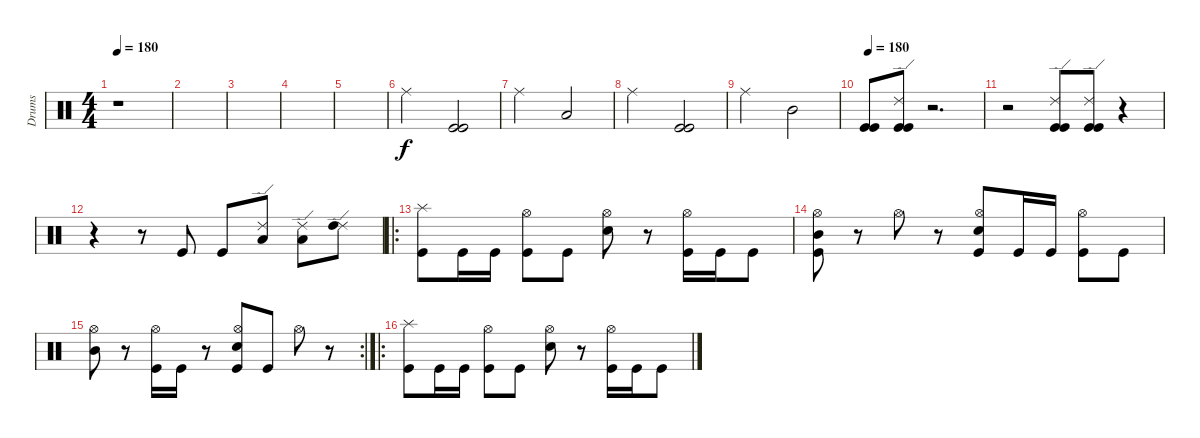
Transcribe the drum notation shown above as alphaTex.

\track ("Drums" "Drums") {instrument percussion}
\staff {score}
\articulation defaults
\ts (4 4)
\tempo 180
\tempo 120
\tempo 180
\clef neutral
\ks c
r.1{dy f} |
|
|
|
|
"Ride (middle)".2 ("Kick (hit)" "Kick (hit)").2 |
"Ride (middle)".2 "Low Tom (hit)".2 |
"Ride (middle)".2 ("Kick (hit)" "Kick (hit)").2 |
"Ride (middle)".2 "Mid Tom (hit)".2 |
\tempo 180
("Kick (hit)" "Kick (hit)").8 ("Ride (edge) 2" "Kick (hit)" "Kick (hit)").8 r.2{d} |
r.2 ("Ride (edge) 2" "Kick (hit)" "Kick (hit)").8 ("Ride (edge) 2" "Kick (hit)" "Kick (hit)").8 r.4 |
r.4 r.8 "Kick (hit)".8 "Kick (hit)".8 ("Ride (edge) 2" "Low Tom (hit)").8 ("Ride (edge) 2" "Low Tom (hit)").8 ("Ride (edge) 2" "High Tom (hit)").8 |
\ro
("Splash (hit)" "Kick (hit)").8 "Kick (hit)".16 "Kick (hit)".16 ("Hi-Hat (open)" "Kick (hit)").8 "Kick (hit)".8 ("Hi-Hat (open)" "Snare (hit) 2").8 r.8 ("Hi-Hat (open)" "Kick (hit)").16 "Kick (hit)".16 "Kick (hit)".8 |
("Hi-Hat (open)" "Mid Tom (hit)" "Kick (hit)").8 r.8 "Hi-Hat (open)".8 r.8 ("Hi-Hat (open)" "Snare (hit) 2" "Kick (hit)").8 "Kick (hit)".16 "Kick (hit)".16 ("Hi-Hat (open)" "Kick (hit)").8 "Kick (hit)".8 |
\rc 2
("Hi-Hat (open)" "Mid Tom (hit)").8 r.8 ("Hi-Hat (open)" "Kick (hit)").16 "Kick (hit)".16 r.8 ("Hi-Hat (open)" "Snare (hit) 2" "Kick (hit)").8 "Kick (hit)".8 "Hi-Hat (open)".8 r.8 |
\ro
("Splash (hit)" "Kick (hit)").8 "Kick (hit)".16 "Kick (hit)".16 ("Hi-Hat (open)" "Kick (hit)").8 "Kick (hit)".8 ("Hi-Hat (open)" "Snare (hit) 2").8 r.8 ("Hi-Hat (open)" "Kick (hit)").16 "Kick (hit)".16 "Kick (hit)".8
